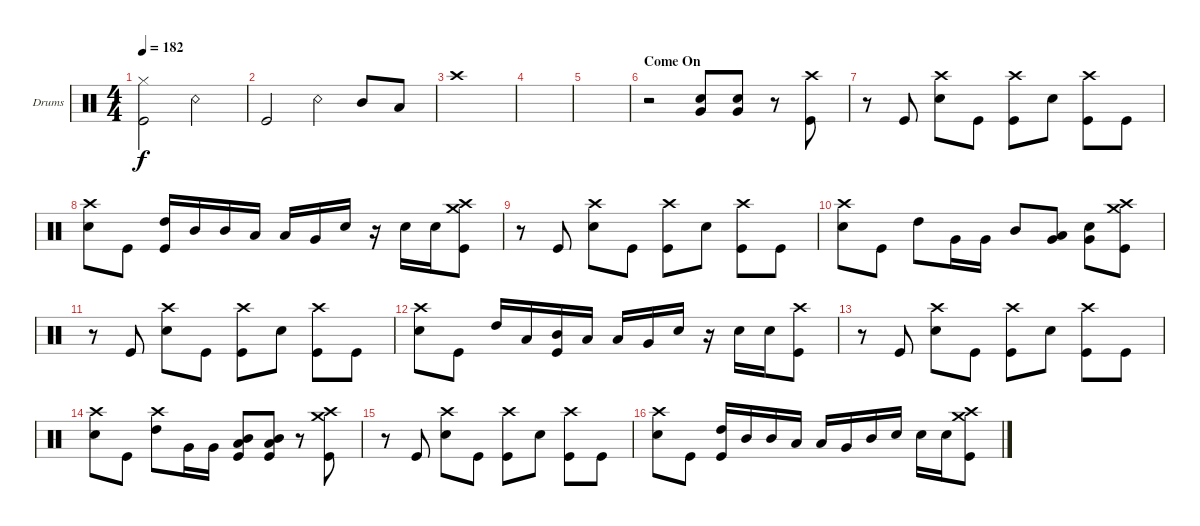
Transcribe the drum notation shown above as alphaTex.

\defaultSystemsLayout 4
\bracketExtendMode groupsimilarinstruments
\firstSystemTrackNameOrientation horizontal
\otherSystemsTrackNameOrientation horizontal
\track ("Drumkit" "Drums") {instrument percussion}
\staff {score}
\articulation defaults
\ts (4 4)
\tempo 182
\clef neutral
\scale
0.333333
\ks c
("Kick (hit)" "Hi-Hat (closed)").2{dy f} "Snare (rim shot)".2 |
\scale
0.333333 "Kick (hit)".2 "Snare (rim shot)".4 "Mid Tom (hit)".8 "Low Tom (hit)".8 |
\scale
0.333333 "Crash high (hit)".1 |
\scale
0.333333 |
|
\section ("" "Come On")
r.2 ("Snare (hit) 2" "Very Low Tom (hit)").8 ("Snare (hit) 2" "Very Low Tom (hit)").8 r.8 ("Kick (hit)" "Crash high (hit)").8 |
r.8 "Kick (hit)".8 ("Snare (hit) 2" "Crash high (hit)").8 "Kick (hit)".8 ("Kick (hit)" "Crash high (hit)").8 "Snare (hit) 2".8 ("Kick (hit)" "Crash high (hit)").8 "Kick (hit)".8 |
("Snare (hit) 2" "Crash high (hit)").8 "Kick (hit)".8 ("Kick (hit)" "High Tom (hit)").16 "Mid Tom (hit)".16 "Mid Tom (hit)".16 "Low Tom (hit)".16 "Low Tom (hit)".16 "Very Low Tom (hit)".16 "Snare (hit) 2".16 r.16 "Snare (hit) 2".16 "Snare (hit) 2".16 ("Kick (hit)" "Crash high (hit)" "Crash medium (hit)").8 |
r.8 "Kick (hit)".8 ("Snare (hit) 2" "Crash high (hit)").8 "Kick (hit)".8 ("Kick (hit)" "Crash high (hit)").8 "Snare (hit) 2".8 ("Kick (hit)" "Crash high (hit)").8 "Kick (hit)".8 |
("Snare (hit) 2" "Crash high (hit)").8 "Kick (hit)".8 "High Tom (hit)".8 "Very Low Tom (hit)".16 "Very Low Tom (hit)".16 "Mid Tom (hit)".8 ("Very Low Tom (hit)" "Low Tom (hit)").8 ("Snare (hit) 2" "Very Low Tom (hit)").8 ("Kick (hit)" "Crash high (hit)" "Crash medium (hit)").8 |
r.8 "Kick (hit)".8 ("Snare (hit) 2" "Crash high (hit)").8 "Kick (hit)".8 ("Kick (hit)" "Crash high (hit)").8 "Snare (hit) 2".8 ("Kick (hit)" "Crash high (hit)").8 "Kick (hit)".8 |
("Snare (hit) 2" "Crash high (hit)").8 "Kick (hit)".8 "High Tom (hit)".16 "Low Tom (hit)".16 ("Mid Tom (hit)" "Kick (hit)").16 "Low Tom (hit)".16 "Low Tom (hit)".16 "Very Low Tom (hit)".16 "Snare (hit) 2".16 r.16 "Snare (hit) 2".16 "Snare (hit) 2".16 ("Kick (hit)" "Crash high (hit)").8 |
r.8 "Kick (hit)".8 ("Snare (hit) 2" "Crash high (hit)").8 "Kick (hit)".8 ("Kick (hit)" "Crash high (hit)").8 "Snare (hit) 2".8 ("Kick (hit)" "Crash high (hit)").8 "Kick (hit)".8 |
("Snare (hit) 2" "Crash high (hit)").8 "Kick (hit)".8 ("High Tom (hit)" "Crash high (hit)").8 "Very Low Tom (hit)".16 "Very Low Tom (hit)".16 ("Mid Tom (hit)" "Low Tom (hit)" "Kick (hit)").8 ("Low Tom (hit)" "Mid Tom (hit)" "Kick (hit)").8 r.8 ("Kick (hit)" "Crash high (hit)" "Crash medium (hit)").8 |
r.8 "Kick (hit)".8 ("Snare (hit) 2" "Crash high (hit)").8 "Kick (hit)".8 ("Kick (hit)" "Crash high (hit)").8 "Snare (hit) 2".8 ("Kick (hit)" "Crash high (hit)").8 "Kick (hit)".8 |
("Snare (hit) 2" "Crash high (hit)").8 "Kick (hit)".8 ("Kick (hit)" "High Tom (hit)").16 "Mid Tom (hit)".16 "Mid Tom (hit)".16 "Low Tom (hit)".16 "Low Tom (hit)".16 "Very Low Tom (hit)".16 "Mid Tom (hit)".16 "Snare (hit) 2".16 "Snare (hit) 2".16 "Snare (hit) 2".16 ("Kick (hit)" "Crash high (hit)" "Crash medium (hit)").8
